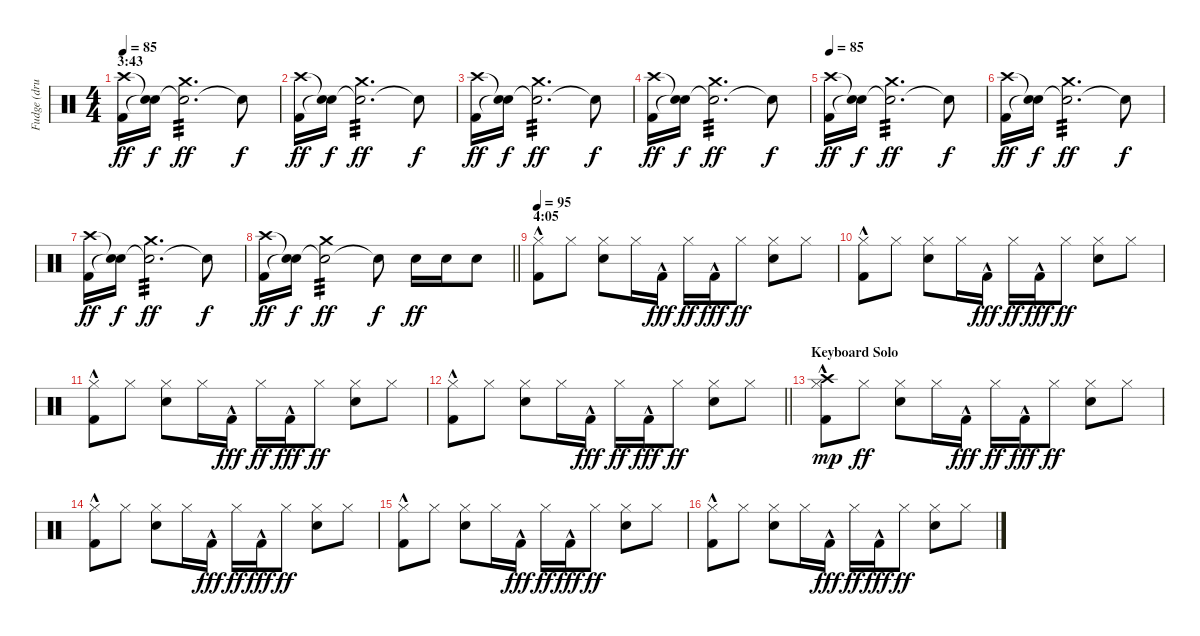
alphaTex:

\track ("Fudge (drums)" "Fudge (dru") {instrument percussion}
\staff {score}
\articulation defaults
\ts (4 4)
\section ("" "3:43")
\tempo 85
\clef neutral
\ks c
("Kick (hit) 2" "Crash high (hit)").16{dy ff} ("Snare (hit)"{t} "Snare (hit)"{t}).16{dy f volume 6} ("Snare (hit)"{t} "Crash medium (hit)").2{d tp 3 dy ff volume 13} "Snare (hit)"{t}.8{dy f} |
("Kick (hit) 2" "Crash high (hit)").16{dy ff} ("Snare (hit)"{t} "Snare (hit)"{t}).16{dy f volume 6} ("Snare (hit)"{t} "Crash medium (hit)").2{d tp 3 dy ff volume 13} "Snare (hit)"{t}.8{dy f} |
("Kick (hit) 2" "Crash high (hit)").16{dy ff} ("Snare (hit)"{t} "Snare (hit)"{t}).16{dy f volume 6} ("Snare (hit)"{t} "Crash medium (hit)").2{d tp 3 dy ff volume 13} "Snare (hit)"{t}.8{dy f} |
("Kick (hit) 2" "Crash high (hit)").16{dy ff} ("Snare (hit)"{t} "Snare (hit)"{t}).16{dy f volume 6} ("Snare (hit)"{t} "Crash medium (hit)").2{d tp 3 dy ff volume 13} "Snare (hit)"{t}.8{dy f} |
\tempo 85
("Kick (hit) 2" "Crash high (hit)").16{dy ff} ("Snare (hit)"{t} "Snare (hit)"{t}).16{dy f volume 6} ("Snare (hit)"{t} "Crash medium (hit)").2{d tp 3 dy ff volume 13} "Snare (hit)"{t}.8{dy f} |
("Kick (hit) 2" "Crash high (hit)").16{dy ff} ("Snare (hit)"{t} "Snare (hit)"{t}).16{dy f volume 6} ("Snare (hit)"{t} "Crash medium (hit)").2{d tp 3 dy ff volume 13} "Snare (hit)"{t}.8{dy f} |
("Kick (hit) 2" "Crash high (hit)").16{dy ff} ("Snare (hit)"{t} "Snare (hit)"{t}).16{dy f volume 6} ("Snare (hit)"{t} "Crash medium (hit)").2{d tp 3 dy ff volume 13} "Snare (hit)"{t}.8{dy f} |
\barLineRight lightlight
("Kick (hit) 2" "Crash high (hit)").16{dy ff} ("Snare (hit)"{t} "Snare (hit)"{t}).16{dy f} ("Snare (hit)"{t} "Crash medium (hit)").2{tp 3 dy ff} "Snare (hit)"{t}.8{dy f} "Electric Snare (hit)".16{dy ff} "Electric Snare (hit)".16 "Electric Snare (hit)".8 |
\section ("" "4:05")
\tempo 95
("Kick (hit) 2"{hac} "Hi-Hat (closed)").8 "Hi-Hat (closed)".8 ("Electric Snare (hit)" "Hi-Hat (closed)").8 "Hi-Hat (closed)".16 "Kick (hit) 2"{hac}.16{dy fff} "Hi-Hat (closed)".16{dy ff} "Kick (hit) 2"{hac}.16{dy fff} "Hi-Hat (closed)".8{dy ff} ("Electric Snare (hit)" "Hi-Hat (closed)").8 "Hi-Hat (closed)".8 |
("Kick (hit) 2"{hac} "Hi-Hat (closed)").8 "Hi-Hat (closed)".8 ("Electric Snare (hit)" "Hi-Hat (closed)").8 "Hi-Hat (closed)".16 "Kick (hit) 2"{hac}.16{dy fff} "Hi-Hat (closed)".16{dy ff} "Kick (hit) 2"{hac}.16{dy fff} "Hi-Hat (closed)".8{dy ff} ("Electric Snare (hit)" "Hi-Hat (closed)").8 "Hi-Hat (closed)".8 |
("Kick (hit) 2"{hac} "Hi-Hat (closed)").8 "Hi-Hat (closed)".8 ("Electric Snare (hit)" "Hi-Hat (closed)").8 "Hi-Hat (closed)".16 "Kick (hit) 2"{hac}.16{dy fff} "Hi-Hat (closed)".16{dy ff} "Kick (hit) 2"{hac}.16{dy fff} "Hi-Hat (closed)".8{dy ff} ("Electric Snare (hit)" "Hi-Hat (closed)").8 "Hi-Hat (closed)".8 |
\barLineRight lightlight
("Kick (hit) 2"{hac} "Hi-Hat (closed)").8 "Hi-Hat (closed)".8 ("Electric Snare (hit)" "Hi-Hat (closed)").8 "Hi-Hat (closed)".16 "Kick (hit) 2"{hac}.16{dy fff} "Hi-Hat (closed)".16{dy ff} "Kick (hit) 2"{hac}.16{dy fff} "Hi-Hat (closed)".8{dy ff} ("Electric Snare (hit)" "Hi-Hat (closed)").8 "Hi-Hat (closed)".8 |
\section ("" "Keyboard Solo")
("Kick (hit) 2"{hac} "Hi-Hat (closed)" "Crash high (hit)").8{dy mp} "Hi-Hat (closed)".8{dy ff} ("Electric Snare (hit)" "Hi-Hat (closed)").8 "Hi-Hat (closed)".16 "Kick (hit) 2"{hac}.16{dy fff} "Hi-Hat (closed)".16{dy ff} "Kick (hit) 2"{hac}.16{dy fff} "Hi-Hat (closed)".8{dy ff} ("Electric Snare (hit)" "Hi-Hat (closed)").8 "Hi-Hat (closed)".8 |
("Kick (hit) 2"{hac} "Hi-Hat (closed)").8 "Hi-Hat (closed)".8 ("Electric Snare (hit)" "Hi-Hat (closed)").8 "Hi-Hat (closed)".16 "Kick (hit) 2"{hac}.16{dy fff} "Hi-Hat (closed)".16{dy ff} "Kick (hit) 2"{hac}.16{dy fff} "Hi-Hat (closed)".8{dy ff} ("Electric Snare (hit)" "Hi-Hat (closed)").8 "Hi-Hat (closed)".8 |
("Kick (hit) 2"{hac} "Hi-Hat (closed)").8 "Hi-Hat (closed)".8 ("Electric Snare (hit)" "Hi-Hat (closed)").8 "Hi-Hat (closed)".16 "Kick (hit) 2"{hac}.16{dy fff} "Hi-Hat (closed)".16{dy ff} "Kick (hit) 2"{hac}.16{dy fff} "Hi-Hat (closed)".8{dy ff} ("Electric Snare (hit)" "Hi-Hat (closed)").8 "Hi-Hat (closed)".8 |
("Kick (hit) 2"{hac} "Hi-Hat (closed)").8 "Hi-Hat (closed)".8 ("Electric Snare (hit)" "Hi-Hat (closed)").8 "Hi-Hat (closed)".16 "Kick (hit) 2"{hac}.16{dy fff} "Hi-Hat (closed)".16{dy ff} "Kick (hit) 2"{hac}.16{dy fff} "Hi-Hat (closed)".8{dy ff} ("Electric Snare (hit)" "Hi-Hat (closed)").8 "Hi-Hat (closed)".8
